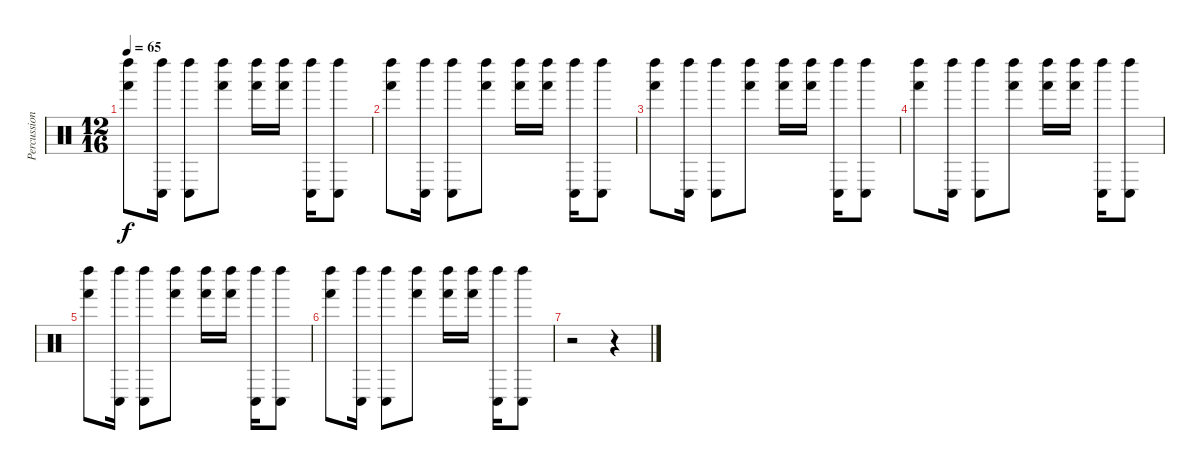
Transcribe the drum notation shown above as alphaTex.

\track ("Percussion" "Percussion") {instrument percussion}
\staff {score}
\articulation defaults
\ts (12 16)
\tempo 65
\clef neutral
\ks c
("Left Maraca (hit)" "Hand (hit)").8{dy f} ("Left Maraca (hit)" "Conga low (hit)").16 ("Left Maraca (hit)" "Conga low (hit)").8 ("Left Maraca (hit)" "Hand (hit)").8 ("Left Maraca (hit)" "Hand (hit)").16 ("Left Maraca (hit)" "Hand (hit)").16 ("Left Maraca (hit)" "Conga low (hit)").16 ("Left Maraca (hit)" "Conga low (hit)").8 |
("Left Maraca (hit)" "Hand (hit)").8 ("Left Maraca (hit)" "Conga low (hit)").16 ("Left Maraca (hit)" "Conga low (hit)").8 ("Left Maraca (hit)" "Hand (hit)").8 ("Left Maraca (hit)" "Hand (hit)").16 ("Left Maraca (hit)" "Hand (hit)").16 ("Left Maraca (hit)" "Conga low (hit)").16 ("Left Maraca (hit)" "Conga low (hit)").8 |
("Left Maraca (hit)" "Hand (hit)").8 ("Left Maraca (hit)" "Conga low (hit)").16 ("Left Maraca (hit)" "Conga low (hit)").8 ("Left Maraca (hit)" "Hand (hit)").8 ("Left Maraca (hit)" "Hand (hit)").16 ("Left Maraca (hit)" "Hand (hit)").16 ("Left Maraca (hit)" "Conga low (hit)").16 ("Left Maraca (hit)" "Conga low (hit)").8 |
("Left Maraca (hit)" "Hand (hit)").8 ("Left Maraca (hit)" "Conga low (hit)").16 ("Left Maraca (hit)" "Conga low (hit)").8 ("Left Maraca (hit)" "Hand (hit)").8 ("Left Maraca (hit)" "Hand (hit)").16 ("Left Maraca (hit)" "Hand (hit)").16 ("Left Maraca (hit)" "Conga low (hit)").16 ("Left Maraca (hit)" "Conga low (hit)").8 |
("Left Maraca (hit)" "Hand (hit)").8 ("Left Maraca (hit)" "Conga low (hit)").16 ("Left Maraca (hit)" "Conga low (hit)").8 ("Left Maraca (hit)" "Hand (hit)").8 ("Left Maraca (hit)" "Hand (hit)").16 ("Left Maraca (hit)" "Hand (hit)").16 ("Left Maraca (hit)" "Conga low (hit)").16 ("Left Maraca (hit)" "Conga low (hit)").8 |
("Left Maraca (hit)" "Hand (hit)").8 ("Left Maraca (hit)" "Conga low (hit)").16 ("Left Maraca (hit)" "Conga low (hit)").8 ("Left Maraca (hit)" "Hand (hit)").8 ("Left Maraca (hit)" "Hand (hit)").16 ("Left Maraca (hit)" "Hand (hit)").16 ("Left Maraca (hit)" "Conga low (hit)").16 ("Left Maraca (hit)" "Conga low (hit)").8 |
r.2 r.4
